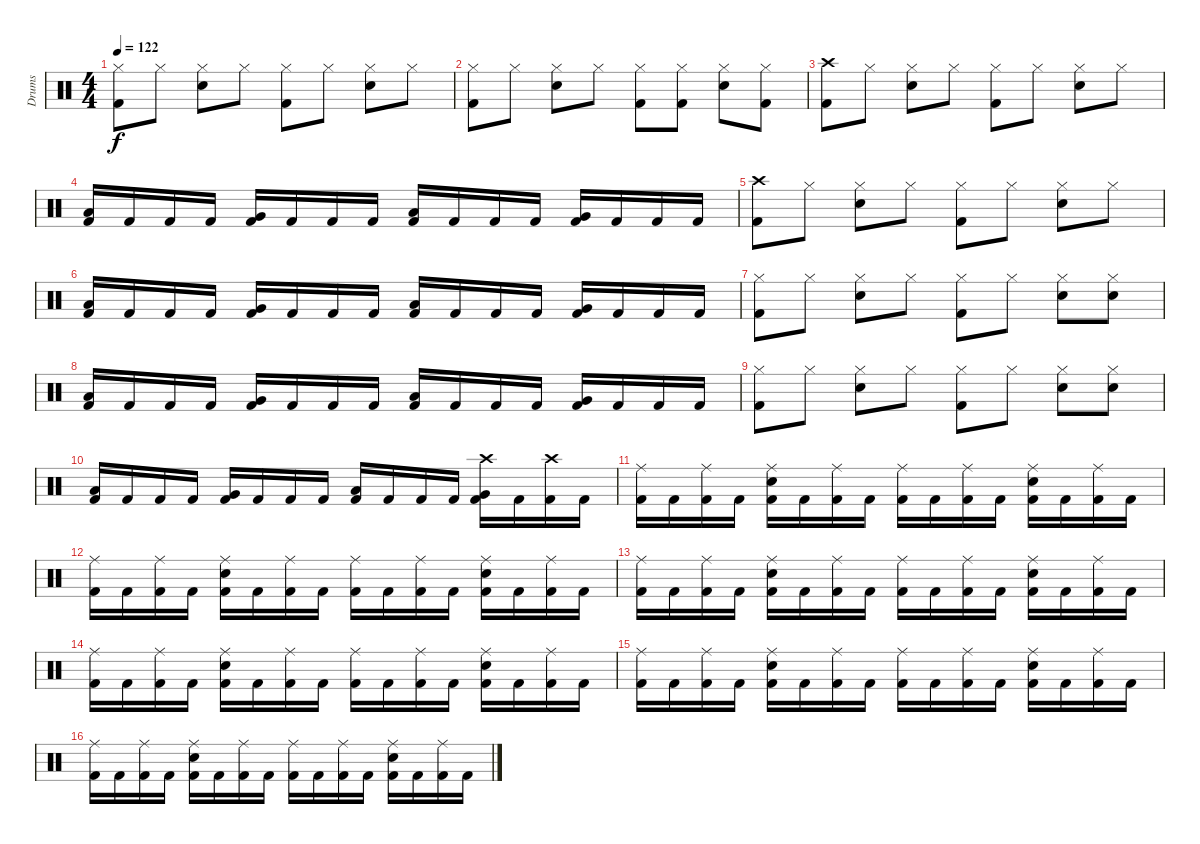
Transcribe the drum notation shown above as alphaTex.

\track ("Drums" "Drums") {instrument percussion}
\staff {score}
\articulation defaults
\ts (4 4)
\tempo 122
\clef neutral
\ks c
("Hi-Hat (closed)" "Kick (hit) 2").8{dy f} "Hi-Hat (closed)".8 ("Hi-Hat (closed)" "Electric Snare (hit)").8 "Hi-Hat (closed)".8 ("Hi-Hat (closed)" "Kick (hit) 2").8 "Hi-Hat (closed)".8 ("Hi-Hat (closed)" "Electric Snare (hit)").8 "Hi-Hat (closed)".8 |
("Hi-Hat (closed)" "Kick (hit) 2").8 "Hi-Hat (closed)".8 ("Hi-Hat (closed)" "Electric Snare (hit)").8 "Hi-Hat (closed)".8 ("Hi-Hat (closed)" "Kick (hit) 2").8 ("Hi-Hat (closed)" "Kick (hit) 2").8 ("Hi-Hat (closed)" "Electric Snare (hit)").8 ("Hi-Hat (closed)" "Kick (hit) 2").8 |
("Crash high (hit)" "Kick (hit) 2").8 "Hi-Hat (closed)".8 ("Hi-Hat (closed)" "Electric Snare (hit)").8 "Hi-Hat (closed)".8 ("Hi-Hat (closed)" "Kick (hit) 2").8 "Hi-Hat (closed)".8 ("Hi-Hat (closed)" "Electric Snare (hit)").8 "Hi-Hat (closed)".8 |
("Low Floor Tom (hit)" "Kick (hit) 2").16 "Kick (hit) 2".16 "Kick (hit) 2".16 "Kick (hit) 2".16 ("Very Low Tom (hit)" "Kick (hit) 2").16 "Kick (hit) 2".16 "Kick (hit) 2".16 "Kick (hit) 2".16 ("Low Floor Tom (hit)" "Kick (hit) 2").16 "Kick (hit) 2".16 "Kick (hit) 2".16 "Kick (hit) 2".16 ("Very Low Tom (hit)" "Kick (hit) 2").16 "Kick (hit) 2".16 "Kick (hit) 2".16 "Kick (hit) 2".16 |
("Crash high (hit)" "Kick (hit) 2").8 "Hi-Hat (closed)".8 ("Hi-Hat (closed)" "Electric Snare (hit)").8 "Hi-Hat (closed)".8 ("Hi-Hat (closed)" "Kick (hit) 2").8 "Hi-Hat (closed)".8 ("Hi-Hat (closed)" "Electric Snare (hit)").8 "Hi-Hat (closed)".8 |
("Low Floor Tom (hit)" "Kick (hit) 2").16 "Kick (hit) 2".16 "Kick (hit) 2".16 "Kick (hit) 2".16 ("Very Low Tom (hit)" "Kick (hit) 2").16 "Kick (hit) 2".16 "Kick (hit) 2".16 "Kick (hit) 2".16 ("Low Floor Tom (hit)" "Kick (hit) 2").16 "Kick (hit) 2".16 "Kick (hit) 2".16 "Kick (hit) 2".16 ("Very Low Tom (hit)" "Kick (hit) 2").16 "Kick (hit) 2".16 "Kick (hit) 2".16 "Kick (hit) 2".16 |
("Hi-Hat (closed)" "Kick (hit) 2").8 "Hi-Hat (closed)".8 ("Hi-Hat (closed)" "Electric Snare (hit)").8 "Hi-Hat (closed)".8 ("Hi-Hat (closed)" "Kick (hit) 2").8 "Hi-Hat (closed)".8 ("Hi-Hat (closed)" "Electric Snare (hit)").8 ("Hi-Hat (closed)" "Electric Snare (hit)").8 |
("Low Floor Tom (hit)" "Kick (hit) 2").16 "Kick (hit) 2".16 "Kick (hit) 2".16 "Kick (hit) 2".16 ("Very Low Tom (hit)" "Kick (hit) 2").16 "Kick (hit) 2".16 "Kick (hit) 2".16 "Kick (hit) 2".16 ("Low Floor Tom (hit)" "Kick (hit) 2").16 "Kick (hit) 2".16 "Kick (hit) 2".16 "Kick (hit) 2".16 ("Very Low Tom (hit)" "Kick (hit) 2").16 "Kick (hit) 2".16 "Kick (hit) 2".16 "Kick (hit) 2".16 |
("Hi-Hat (closed)" "Kick (hit) 2").8 "Hi-Hat (closed)".8 ("Hi-Hat (closed)" "Electric Snare (hit)").8 "Hi-Hat (closed)".8 ("Hi-Hat (closed)" "Kick (hit) 2").8 "Hi-Hat (closed)".8 ("Hi-Hat (closed)" "Electric Snare (hit)").8 ("Hi-Hat (closed)" "Electric Snare (hit)").8 |
("Low Floor Tom (hit)" "Kick (hit) 2").16 "Kick (hit) 2".16 "Kick (hit) 2".16 "Kick (hit) 2".16 ("Very Low Tom (hit)" "Kick (hit) 2").16 "Kick (hit) 2".16 "Kick (hit) 2".16 "Kick (hit) 2".16 ("Low Floor Tom (hit)" "Kick (hit) 2").16 "Kick (hit) 2".16 "Kick (hit) 2".16 "Kick (hit) 2".16 ("Crash high (hit)" "Very Low Tom (hit)" "Kick (hit) 2").16 "Kick (hit) 2".16 ("Crash high (hit)" "Kick (hit) 2").16 "Kick (hit) 2".16 |
("Ride (middle)" "Kick (hit) 2").16 "Kick (hit) 2".16 ("Ride (middle)" "Kick (hit) 2").16 "Kick (hit) 2".16 ("Ride (middle)" "Electric Snare (hit)" "Kick (hit) 2").16 "Kick (hit) 2".16 ("Ride (middle)" "Kick (hit) 2").16 "Kick (hit) 2".16 ("Ride (middle)" "Kick (hit) 2").16 "Kick (hit) 2".16 ("Ride (middle)" "Kick (hit) 2").16 "Kick (hit) 2".16 ("Ride (middle)" "Electric Snare (hit)" "Kick (hit) 2").16 "Kick (hit) 2".16 ("Ride (middle)" "Kick (hit) 2").16 "Kick (hit) 2".16 |
("Ride (middle)" "Kick (hit) 2").16 "Kick (hit) 2".16 ("Ride (middle)" "Kick (hit) 2").16 "Kick (hit) 2".16 ("Ride (middle)" "Electric Snare (hit)" "Kick (hit) 2").16 "Kick (hit) 2".16 ("Ride (middle)" "Kick (hit) 2").16 "Kick (hit) 2".16 ("Ride (middle)" "Kick (hit) 2").16 "Kick (hit) 2".16 ("Ride (middle)" "Kick (hit) 2").16 "Kick (hit) 2".16 ("Ride (middle)" "Electric Snare (hit)" "Kick (hit) 2").16 "Kick (hit) 2".16 ("Ride (middle)" "Kick (hit) 2").16 "Kick (hit) 2".16 |
("Ride (middle)" "Kick (hit) 2").16 "Kick (hit) 2".16 ("Ride (middle)" "Kick (hit) 2").16 "Kick (hit) 2".16 ("Ride (middle)" "Electric Snare (hit)" "Kick (hit) 2").16 "Kick (hit) 2".16 ("Ride (middle)" "Kick (hit) 2").16 "Kick (hit) 2".16 ("Ride (middle)" "Kick (hit) 2").16 "Kick (hit) 2".16 ("Ride (middle)" "Kick (hit) 2").16 "Kick (hit) 2".16 ("Ride (middle)" "Electric Snare (hit)" "Kick (hit) 2").16 "Kick (hit) 2".16 ("Ride (middle)" "Kick (hit) 2").16 "Kick (hit) 2".16 |
("Ride (middle)" "Kick (hit) 2").16 "Kick (hit) 2".16 ("Ride (middle)" "Kick (hit) 2").16 "Kick (hit) 2".16 ("Ride (middle)" "Electric Snare (hit)" "Kick (hit) 2").16 "Kick (hit) 2".16 ("Ride (middle)" "Kick (hit) 2").16 "Kick (hit) 2".16 ("Ride (middle)" "Kick (hit) 2").16 "Kick (hit) 2".16 ("Ride (middle)" "Kick (hit) 2").16 "Kick (hit) 2".16 ("Ride (middle)" "Electric Snare (hit)" "Kick (hit) 2").16 "Kick (hit) 2".16 ("Ride (middle)" "Kick (hit) 2").16 "Kick (hit) 2".16 |
("Ride (middle)" "Kick (hit) 2").16 "Kick (hit) 2".16 ("Ride (middle)" "Kick (hit) 2").16 "Kick (hit) 2".16 ("Ride (middle)" "Electric Snare (hit)" "Kick (hit) 2").16 "Kick (hit) 2".16 ("Ride (middle)" "Kick (hit) 2").16 "Kick (hit) 2".16 ("Ride (middle)" "Kick (hit) 2").16 "Kick (hit) 2".16 ("Ride (middle)" "Kick (hit) 2").16 "Kick (hit) 2".16 ("Ride (middle)" "Electric Snare (hit)" "Kick (hit) 2").16 "Kick (hit) 2".16 ("Ride (middle)" "Kick (hit) 2").16 "Kick (hit) 2".16 |
("Ride (middle)" "Kick (hit) 2").16 "Kick (hit) 2".16 ("Ride (middle)" "Kick (hit) 2").16 "Kick (hit) 2".16 ("Ride (middle)" "Electric Snare (hit)" "Kick (hit) 2").16 "Kick (hit) 2".16 ("Ride (middle)" "Kick (hit) 2").16 "Kick (hit) 2".16 ("Ride (middle)" "Kick (hit) 2").16 "Kick (hit) 2".16 ("Ride (middle)" "Kick (hit) 2").16 "Kick (hit) 2".16 ("Ride (middle)" "Electric Snare (hit)" "Kick (hit) 2").16 "Kick (hit) 2".16 ("Ride (middle)" "Kick (hit) 2").16 "Kick (hit) 2".16
